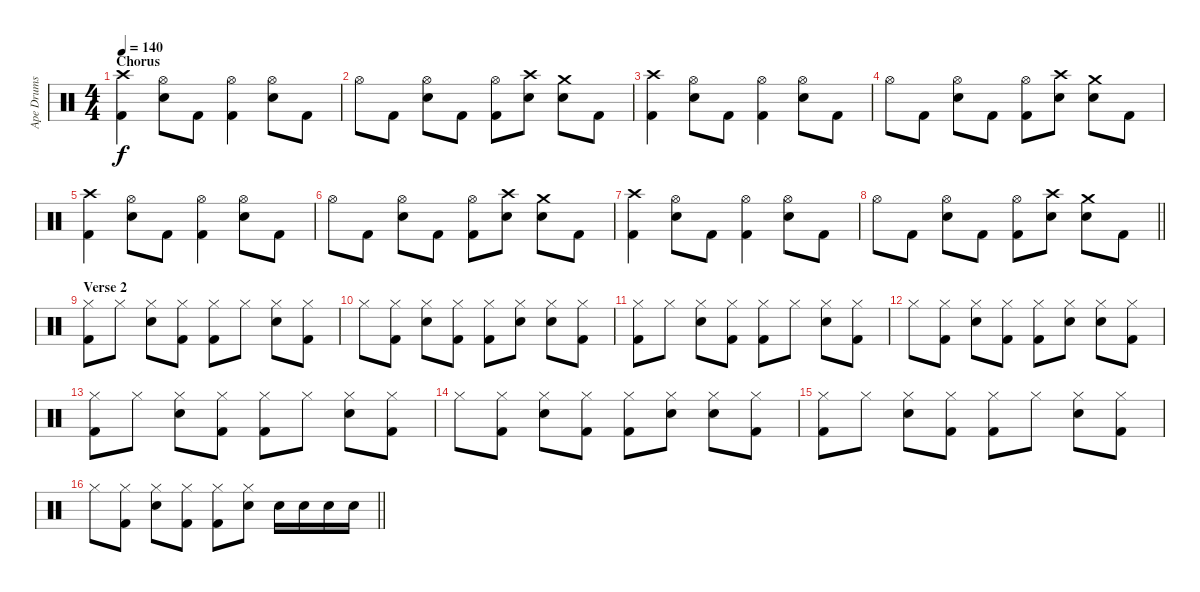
\track ("Ape Drums" "Ape Drums") {instrument percussion}
\staff {score}
\articulation defaults
\ts (4 4)
\section ("" "Chorus")
\tempo 140
\clef neutral
\ks c
("Crash high (hit)" "Kick (hit) 2").4{dy f} ("Hi-Hat (open)" "Snare (hit) 2").8 "Kick (hit) 2".8 ("Hi-Hat (open)" "Kick (hit) 2").4 ("Hi-Hat (open)" "Snare (hit) 2").8 "Kick (hit) 2".8 |
"Hi-Hat (open)".8 "Kick (hit) 2".8 ("Hi-Hat (open)" "Snare (hit) 2").8 "Kick (hit) 2".8 ("Hi-Hat (open)" "Kick (hit) 2").8 ("Crash high (hit)" "Snare (hit) 2").8 ("Crash medium (hit)" "Snare (hit) 2").8 "Kick (hit) 2".8 |
("Crash high (hit)" "Kick (hit) 2").4 ("Hi-Hat (open)" "Snare (hit) 2").8 "Kick (hit) 2".8 ("Hi-Hat (open)" "Kick (hit) 2").4 ("Hi-Hat (open)" "Snare (hit) 2").8 "Kick (hit) 2".8 |
"Hi-Hat (open)".8 "Kick (hit) 2".8 ("Hi-Hat (open)" "Snare (hit) 2").8 "Kick (hit) 2".8 ("Hi-Hat (open)" "Kick (hit) 2").8 ("Crash high (hit)" "Snare (hit) 2").8 ("Crash medium (hit)" "Snare (hit) 2").8 "Kick (hit) 2".8 |
("Crash high (hit)" "Kick (hit) 2").4 ("Hi-Hat (open)" "Snare (hit) 2").8 "Kick (hit) 2".8 ("Hi-Hat (open)" "Kick (hit) 2").4 ("Hi-Hat (open)" "Snare (hit) 2").8 "Kick (hit) 2".8 |
"Hi-Hat (open)".8 "Kick (hit) 2".8 ("Hi-Hat (open)" "Snare (hit) 2").8 "Kick (hit) 2".8 ("Hi-Hat (open)" "Kick (hit) 2").8 ("Crash high (hit)" "Snare (hit) 2").8 ("Crash medium (hit)" "Snare (hit) 2").8 "Kick (hit) 2".8 |
("Crash high (hit)" "Kick (hit) 2").4 ("Hi-Hat (open)" "Snare (hit) 2").8 "Kick (hit) 2".8 ("Hi-Hat (open)" "Kick (hit) 2").4 ("Hi-Hat (open)" "Snare (hit) 2").8 "Kick (hit) 2".8 |
\barLineRight lightlight "Hi-Hat (open)".8 "Kick (hit) 2".8
("Hi-Hat (open)" "Snare (hit) 2").8 "Kick (hit) 2".8 ("Hi-Hat (open)" "Kick (hit) 2").8 ("Crash high (hit)" "Snare (hit) 2").8 ("Crash medium (hit)" "Snare (hit) 2").8 "Kick (hit) 2".8 |
\section ("" "Verse 2")
("Hi-Hat (closed)" "Kick (hit) 2").8 "Hi-Hat (closed)".8 ("Hi-Hat (closed)" "Snare (hit) 2").8 ("Hi-Hat (closed)" "Kick (hit) 2").8 ("Hi-Hat (closed)" "Kick (hit) 2").8 "Hi-Hat (closed)".8 ("Hi-Hat (closed)" "Snare (hit) 2").8 ("Hi-Hat (closed)" "Kick (hit) 2").8 |
"Hi-Hat (closed)".8 ("Hi-Hat (closed)" "Kick (hit) 2").8 ("Hi-Hat (closed)" "Snare (hit) 2").8 ("Hi-Hat (closed)" "Kick (hit) 2").8 ("Hi-Hat (closed)" "Kick (hit) 2").8 ("Hi-Hat (closed)" "Snare (hit) 2").8 ("Hi-Hat (closed)" "Snare (hit) 2").8 ("Hi-Hat (closed)" "Kick (hit) 2").8 |
("Hi-Hat (closed)" "Kick (hit) 2").8 "Hi-Hat (closed)".8 ("Hi-Hat (closed)" "Snare (hit) 2").8 ("Hi-Hat (closed)" "Kick (hit) 2").8 ("Hi-Hat (closed)" "Kick (hit) 2").8 "Hi-Hat (closed)".8 ("Hi-Hat (closed)" "Snare (hit) 2").8 ("Hi-Hat (closed)" "Kick (hit) 2").8 |
"Hi-Hat (closed)".8 ("Hi-Hat (closed)" "Kick (hit) 2").8 ("Hi-Hat (closed)" "Snare (hit) 2").8 ("Hi-Hat (closed)" "Kick (hit) 2").8 ("Hi-Hat (closed)" "Kick (hit) 2").8 ("Hi-Hat (closed)" "Snare (hit) 2").8 ("Hi-Hat (closed)" "Snare (hit) 2").8 ("Hi-Hat (closed)" "Kick (hit) 2").8 |
("Hi-Hat (closed)" "Kick (hit) 2").8 "Hi-Hat (closed)".8 ("Hi-Hat (closed)" "Snare (hit) 2").8 ("Hi-Hat (closed)" "Kick (hit) 2").8 ("Hi-Hat (closed)" "Kick (hit) 2").8 "Hi-Hat (closed)".8 ("Hi-Hat (closed)" "Snare (hit) 2").8 ("Hi-Hat (closed)" "Kick (hit) 2").8 |
"Hi-Hat (closed)".8 ("Hi-Hat (closed)" "Kick (hit) 2").8 ("Hi-Hat (closed)" "Snare (hit) 2").8 ("Hi-Hat (closed)" "Kick (hit) 2").8 ("Hi-Hat (closed)" "Kick (hit) 2").8 ("Hi-Hat (closed)" "Snare (hit) 2").8 ("Hi-Hat (closed)" "Snare (hit) 2").8 ("Hi-Hat (closed)" "Kick (hit) 2").8 |
("Hi-Hat (closed)" "Kick (hit) 2").8 "Hi-Hat (closed)".8 ("Hi-Hat (closed)" "Snare (hit) 2").8 ("Hi-Hat (closed)" "Kick (hit) 2").8 ("Hi-Hat (closed)" "Kick (hit) 2").8 "Hi-Hat (closed)".8 ("Hi-Hat (closed)" "Snare (hit) 2").8 ("Hi-Hat (closed)" "Kick (hit) 2").8 |
\barLineRight lightlight "Hi-Hat (closed)".8
("Hi-Hat (closed)" "Kick (hit) 2").8 ("Hi-Hat (closed)" "Snare (hit) 2").8 ("Hi-Hat (closed)" "Kick (hit) 2").8 ("Hi-Hat (closed)" "Kick (hit) 2").8 ("Hi-Hat (closed)" "Snare (hit) 2").8 "Snare (hit) 2".16 "Snare (hit) 2".16 "Snare (hit) 2".16 "Snare (hit) 2".16
